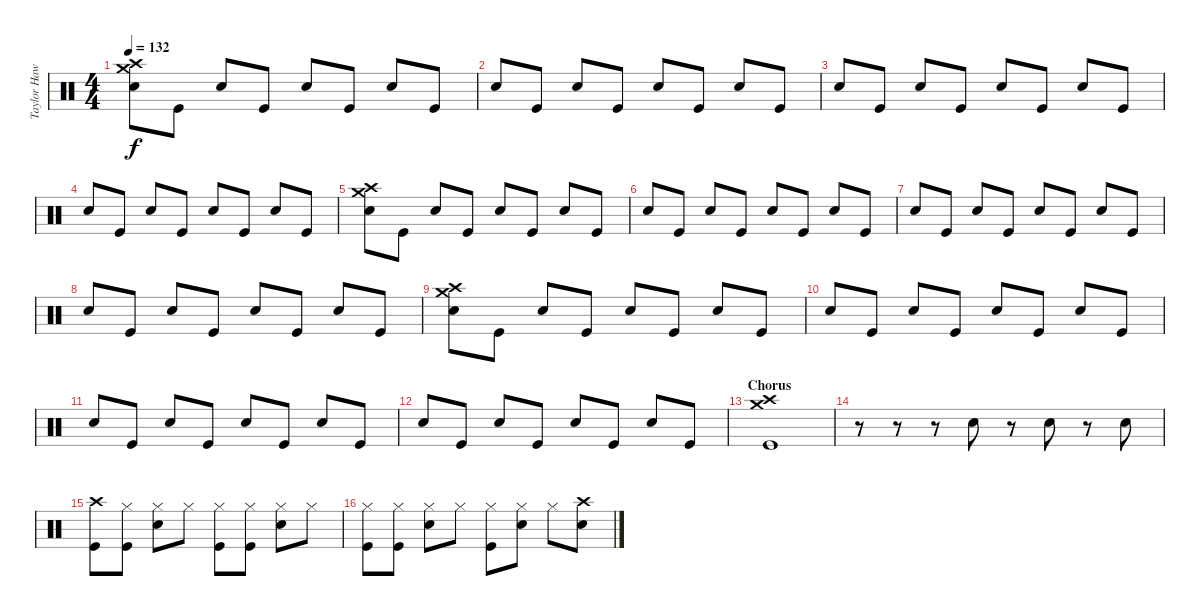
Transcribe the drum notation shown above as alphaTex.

\track ("Taylor Hawkins (Drums)" "Taylor Haw") {instrument percussion}
\staff {score}
\articulation defaults
\ts (4 4)
\tempo 132
\clef neutral
\ks c
("Crash high (hit)" "Crash medium (hit)" "Snare (hit) 2").8{dy f} "Kick (hit)".8 "Snare (hit) 2".8 "Kick (hit)".8 "Snare (hit) 2".8 "Kick (hit)".8 "Snare (hit) 2".8 "Kick (hit)".8 |
"Snare (hit) 2".8 "Kick (hit)".8 "Snare (hit) 2".8 "Kick (hit)".8 "Snare (hit) 2".8 "Kick (hit)".8 "Snare (hit) 2".8 "Kick (hit)".8 |
"Snare (hit) 2".8 "Kick (hit)".8 "Snare (hit) 2".8 "Kick (hit)".8 "Snare (hit) 2".8 "Kick (hit)".8 "Snare (hit) 2".8 "Kick (hit)".8 |
"Snare (hit) 2".8 "Kick (hit)".8 "Snare (hit) 2".8 "Kick (hit)".8 "Snare (hit) 2".8 "Kick (hit)".8 "Snare (hit) 2".8 "Kick (hit)".8 |
("Crash high (hit)" "Crash medium (hit)" "Snare (hit) 2").8 "Kick (hit)".8 "Snare (hit) 2".8 "Kick (hit)".8 "Snare (hit) 2".8 "Kick (hit)".8 "Snare (hit) 2".8 "Kick (hit)".8 |
"Snare (hit) 2".8 "Kick (hit)".8 "Snare (hit) 2".8 "Kick (hit)".8 "Snare (hit) 2".8 "Kick (hit)".8 "Snare (hit) 2".8 "Kick (hit)".8 |
"Snare (hit) 2".8 "Kick (hit)".8 "Snare (hit) 2".8 "Kick (hit)".8 "Snare (hit) 2".8 "Kick (hit)".8 "Snare (hit) 2".8 "Kick (hit)".8 |
"Snare (hit) 2".8 "Kick (hit)".8 "Snare (hit) 2".8 "Kick (hit)".8 "Snare (hit) 2".8 "Kick (hit)".8 "Snare (hit) 2".8 "Kick (hit)".8 |
("Crash high (hit)" "Crash medium (hit)" "Snare (hit) 2").8 "Kick (hit)".8 "Snare (hit) 2".8 "Kick (hit)".8 "Snare (hit) 2".8 "Kick (hit)".8 "Snare (hit) 2".8 "Kick (hit)".8 |
"Snare (hit) 2".8 "Kick (hit)".8 "Snare (hit) 2".8 "Kick (hit)".8 "Snare (hit) 2".8 "Kick (hit)".8 "Snare (hit) 2".8 "Kick (hit)".8 |
"Snare (hit) 2".8 "Kick (hit)".8 "Snare (hit) 2".8 "Kick (hit)".8 "Snare (hit) 2".8 "Kick (hit)".8 "Snare (hit) 2".8 "Kick (hit)".8 |
"Snare (hit) 2".8 "Kick (hit)".8 "Snare (hit) 2".8 "Kick (hit)".8 "Snare (hit) 2".8 "Kick (hit)".8 "Snare (hit) 2".8 "Kick (hit)".8 |
\section ("" "Chorus")
("Kick (hit)" "Crash high (hit)" "Crash medium (hit)").1 |
r.8 r.8 r.8 "Snare (hit) 2".8 r.8 "Snare (hit) 2".8 r.8 "Snare (hit) 2".8 |
("Crash high (hit)" "Kick (hit)").8 ("Hi-Hat (closed)" "Kick (hit)").8 ("Hi-Hat (closed)" "Snare (hit) 2").8 "Hi-Hat (closed)".8 ("Hi-Hat (closed)" "Kick (hit)").8 ("Hi-Hat (closed)" "Kick (hit)").8 ("Hi-Hat (closed)" "Snare (hit) 2").8 "Hi-Hat (closed)".8 |
("Hi-Hat (closed)" "Kick (hit)").8 ("Hi-Hat (closed)" "Kick (hit)").8 ("Hi-Hat (closed)" "Snare (hit) 2").8 "Hi-Hat (closed)".8 ("Hi-Hat (closed)" "Kick (hit)").8 ("Hi-Hat (closed)" "Snare (hit) 2").8 "Hi-Hat (closed)".8 ("Crash high (hit)" "Snare (hit) 2").8
